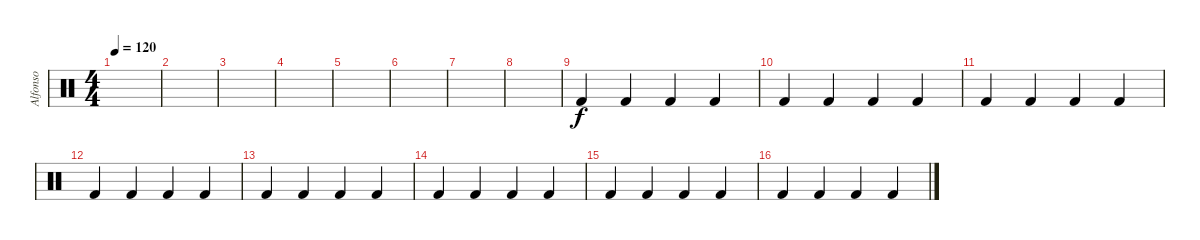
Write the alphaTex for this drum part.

\track ("Alfonso" "Alfonso") {instrument percussion}
\staff {score}
\articulation defaults
\ts (4 4)
\tempo 120
\clef neutral
\ks c
|
|
|
|
|
|
|
|
"Kick (hit) 2".4 "Kick (hit) 2".4 "Kick (hit) 2".4 "Kick (hit) 2".4 |
"Kick (hit) 2".4 "Kick (hit) 2".4 "Kick (hit) 2".4 "Kick (hit) 2".4 |
"Kick (hit) 2".4 "Kick (hit) 2".4 "Kick (hit) 2".4 "Kick (hit) 2".4 |
"Kick (hit) 2".4 "Kick (hit) 2".4 "Kick (hit) 2".4 "Kick (hit) 2".4 |
"Kick (hit) 2".4 "Kick (hit) 2".4 "Kick (hit) 2".4 "Kick (hit) 2".4 |
"Kick (hit) 2".4 "Kick (hit) 2".4 "Kick (hit) 2".4 "Kick (hit) 2".4 |
"Kick (hit) 2".4 "Kick (hit) 2".4 "Kick (hit) 2".4 "Kick (hit) 2".4 |
"Kick (hit) 2".4 "Kick (hit) 2".4 "Kick (hit) 2".4 "Kick (hit) 2".4
